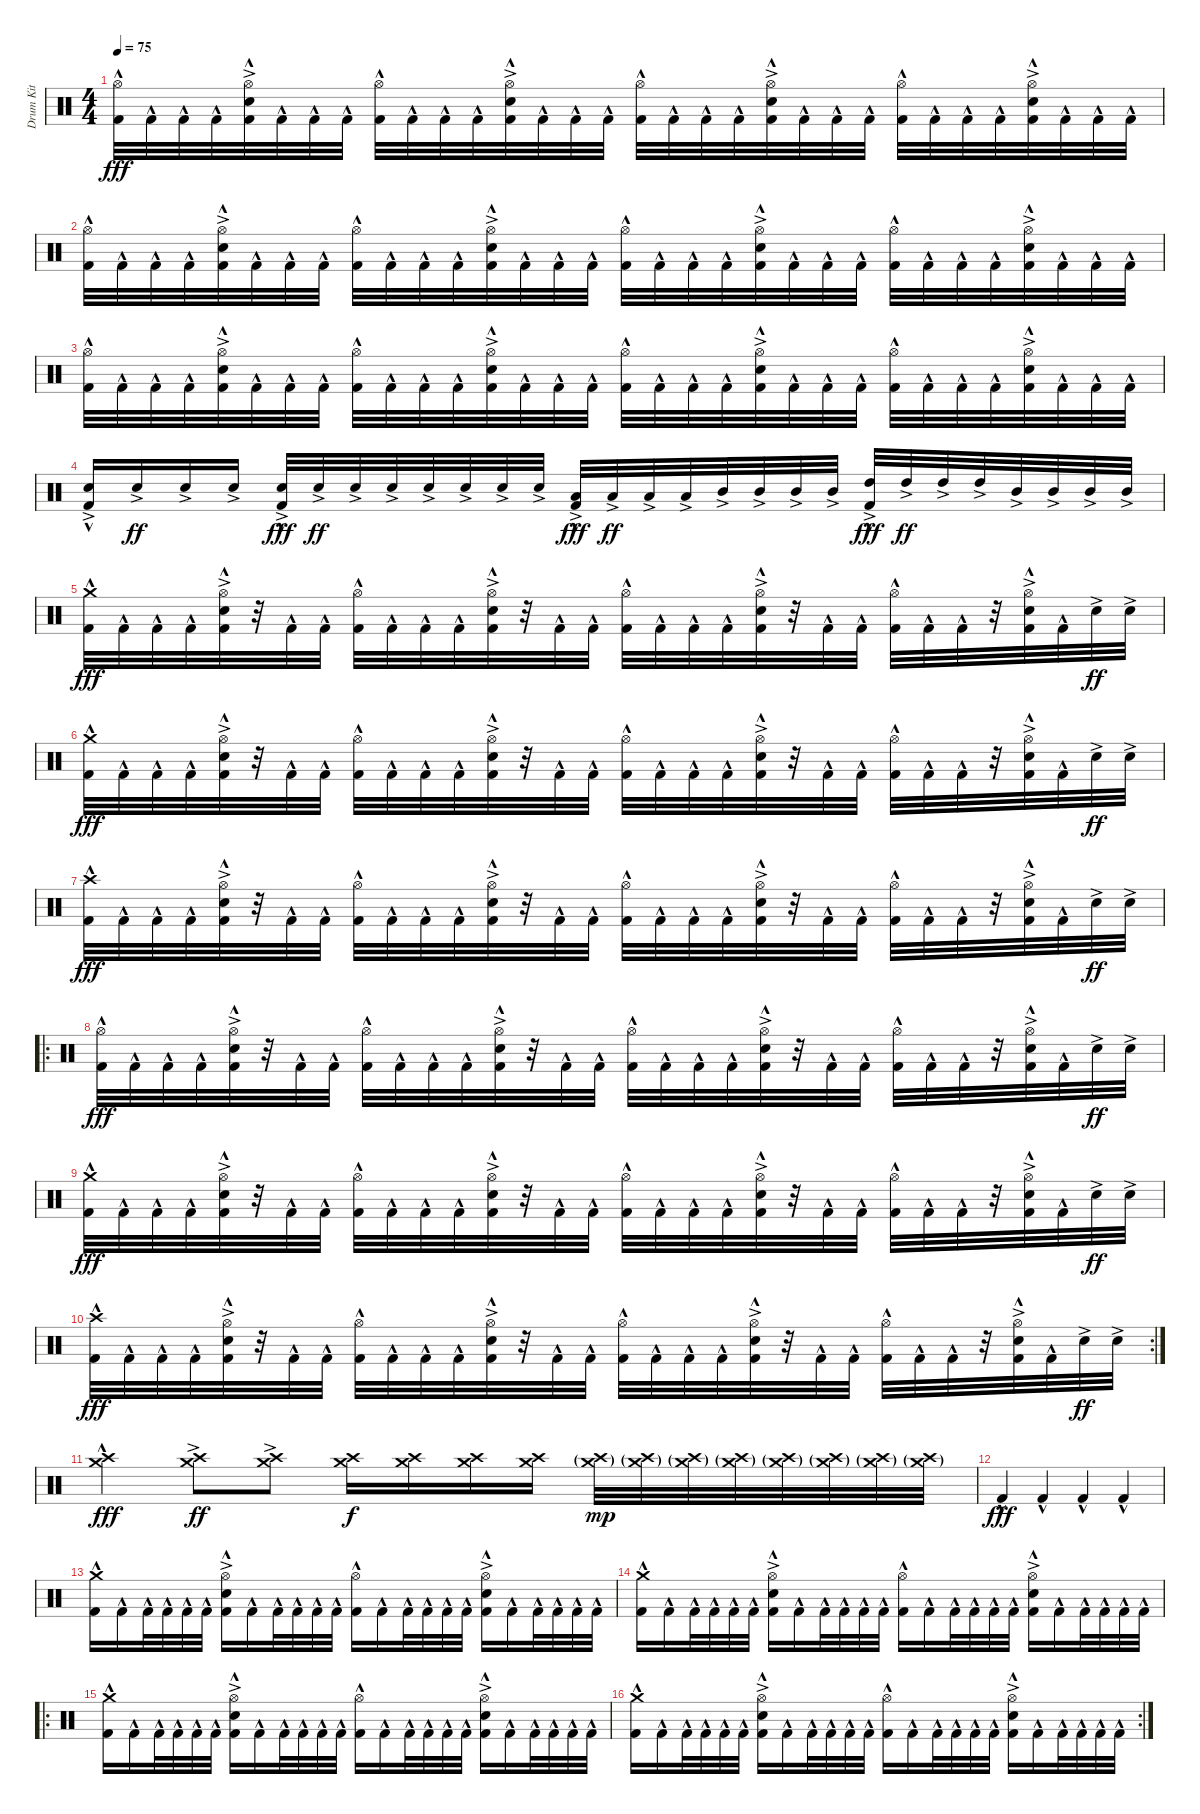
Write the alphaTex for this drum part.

\track ("Drum Kit" "Drum Kit") {instrument percussion}
\staff {score}
\articulation defaults
\ts (4 4)
\tempo 75
\clef neutral
\ks c
("Hi-Hat (open)" "Kick (hit) 2"{hac}).32{dy fff} "Kick (hit) 2"{hac}.32 "Kick (hit) 2"{hac}.32 "Kick (hit) 2"{hac}.32 ("Hi-Hat (open)" "Snare (hit) 2"{ac} "Kick (hit) 2"{hac}).32 "Kick (hit) 2"{hac}.32 "Kick (hit) 2"{hac}.32 "Kick (hit) 2"{hac}.32 ("Hi-Hat (open)" "Kick (hit) 2"{hac}).32 "Kick (hit) 2"{hac}.32 "Kick (hit) 2"{hac}.32 "Kick (hit) 2"{hac}.32 ("Hi-Hat (open)" "Snare (hit) 2"{ac} "Kick (hit) 2"{hac}).32 "Kick (hit) 2"{hac}.32 "Kick (hit) 2"{hac}.32 "Kick (hit) 2"{hac}.32 ("Hi-Hat (open)" "Kick (hit) 2"{hac}).32 "Kick (hit) 2"{hac}.32 "Kick (hit) 2"{hac}.32 "Kick (hit) 2"{hac}.32 ("Hi-Hat (open)" "Snare (hit) 2"{ac} "Kick (hit) 2"{hac}).32 "Kick (hit) 2"{hac}.32 "Kick (hit) 2"{hac}.32 "Kick (hit) 2"{hac}.32 ("Hi-Hat (open)" "Kick (hit) 2"{hac}).32 "Kick (hit) 2"{hac}.32 "Kick (hit) 2"{hac}.32 "Kick (hit) 2"{hac}.32 ("Hi-Hat (open)" "Snare (hit) 2"{ac} "Kick (hit) 2"{hac}).32 "Kick (hit) 2"{hac}.32 "Kick (hit) 2"{hac}.32 "Kick (hit) 2"{hac}.32 |
("Hi-Hat (open)" "Kick (hit) 2"{hac}).32 "Kick (hit) 2"{hac}.32 "Kick (hit) 2"{hac}.32 "Kick (hit) 2"{hac}.32 ("Hi-Hat (open)" "Snare (hit) 2"{ac} "Kick (hit) 2"{hac}).32 "Kick (hit) 2"{hac}.32 "Kick (hit) 2"{hac}.32 "Kick (hit) 2"{hac}.32 ("Hi-Hat (open)" "Kick (hit) 2"{hac}).32 "Kick (hit) 2"{hac}.32 "Kick (hit) 2"{hac}.32 "Kick (hit) 2"{hac}.32 ("Hi-Hat (open)" "Snare (hit) 2"{ac} "Kick (hit) 2"{hac}).32 "Kick (hit) 2"{hac}.32 "Kick (hit) 2"{hac}.32 "Kick (hit) 2"{hac}.32 ("Hi-Hat (open)" "Kick (hit) 2"{hac}).32 "Kick (hit) 2"{hac}.32 "Kick (hit) 2"{hac}.32 "Kick (hit) 2"{hac}.32 ("Hi-Hat (open)" "Snare (hit) 2"{ac} "Kick (hit) 2"{hac}).32 "Kick (hit) 2"{hac}.32 "Kick (hit) 2"{hac}.32 "Kick (hit) 2"{hac}.32 ("Hi-Hat (open)" "Kick (hit) 2"{hac}).32 "Kick (hit) 2"{hac}.32 "Kick (hit) 2"{hac}.32 "Kick (hit) 2"{hac}.32 ("Hi-Hat (open)" "Snare (hit) 2"{ac} "Kick (hit) 2"{hac}).32 "Kick (hit) 2"{hac}.32 "Kick (hit) 2"{hac}.32 "Kick (hit) 2"{hac}.32 |
("Hi-Hat (open)" "Kick (hit) 2"{hac}).32 "Kick (hit) 2"{hac}.32 "Kick (hit) 2"{hac}.32 "Kick (hit) 2"{hac}.32 ("Hi-Hat (open)" "Snare (hit) 2"{ac} "Kick (hit) 2"{hac}).32 "Kick (hit) 2"{hac}.32 "Kick (hit) 2"{hac}.32 "Kick (hit) 2"{hac}.32 ("Hi-Hat (open)" "Kick (hit) 2"{hac}).32 "Kick (hit) 2"{hac}.32 "Kick (hit) 2"{hac}.32 "Kick (hit) 2"{hac}.32 ("Hi-Hat (open)" "Snare (hit) 2"{ac} "Kick (hit) 2"{hac}).32 "Kick (hit) 2"{hac}.32 "Kick (hit) 2"{hac}.32 "Kick (hit) 2"{hac}.32 ("Hi-Hat (open)" "Kick (hit) 2"{hac}).32 "Kick (hit) 2"{hac}.32 "Kick (hit) 2"{hac}.32 "Kick (hit) 2"{hac}.32 ("Hi-Hat (open)" "Snare (hit) 2"{ac} "Kick (hit) 2"{hac}).32 "Kick (hit) 2"{hac}.32 "Kick (hit) 2"{hac}.32 "Kick (hit) 2"{hac}.32 ("Hi-Hat (open)" "Kick (hit) 2"{hac}).32 "Kick (hit) 2"{hac}.32 "Kick (hit) 2"{hac}.32 "Kick (hit) 2"{hac}.32 ("Hi-Hat (open)" "Snare (hit) 2"{ac} "Kick (hit) 2"{hac}).32 "Kick (hit) 2"{hac}.32 "Kick (hit) 2"{hac}.32 "Kick (hit) 2"{hac}.32 |
("Snare (hit) 2"{ac} "Kick (hit) 2"{hac}).16 "Snare (hit) 2"{ac}.16{dy ff} "Snare (hit) 2"{ac}.16 "Snare (hit) 2"{ac}.16 ("Snare (hit) 2"{ac} "Kick (hit) 2"{hac}).32{dy fff} "Snare (hit) 2"{ac}.32{dy ff} "Snare (hit) 2"{ac}.32 "Snare (hit) 2"{ac}.32 "Snare (hit) 2"{ac}.32 "Snare (hit) 2"{ac}.32 "Snare (hit) 2"{ac}.32 "Snare (hit) 2"{ac}.32 ("Low Tom (hit)"{ac} "Kick (hit) 2"{hac}).32{dy fff} "Low Tom (hit)"{ac}.32{dy ff} "Low Tom (hit)"{ac}.32 "Low Tom (hit)"{ac}.32 "Mid Tom (hit)"{ac}.32 "Mid Tom (hit)"{ac}.32 "Mid Tom (hit)"{ac}.32 "Mid Tom (hit)"{ac}.32 ("High Tom (hit)"{ac} "Kick (hit) 2"{hac}).32{dy fff} "High Tom (hit)"{ac}.32{dy ff} "High Tom (hit)"{ac}.32 "High Tom (hit)"{ac}.32 "Mid Tom (hit)"{ac}.32 "Mid Tom (hit)"{ac}.32 "Mid Tom (hit)"{ac}.32 "Mid Tom (hit)"{ac}.32 |
("Crash medium (hit)"{hac} "Kick (hit) 2"{hac}).32{dy fff} "Kick (hit) 2"{hac}.32 "Kick (hit) 2"{hac}.32 "Kick (hit) 2"{hac}.32 ("Hi-Hat (open)" "Snare (hit) 2"{ac} "Kick (hit) 2"{hac}).32 r.32 "Kick (hit) 2"{hac}.32 "Kick (hit) 2"{hac}.32 ("Hi-Hat (open)" "Kick (hit) 2"{hac}).32 "Kick (hit) 2"{hac}.32 "Kick (hit) 2"{hac}.32 "Kick (hit) 2"{hac}.32 ("Hi-Hat (open)" "Snare (hit) 2"{ac} "Kick (hit) 2"{hac}).32 r.32 "Kick (hit) 2"{hac}.32 "Kick (hit) 2"{hac}.32 ("Hi-Hat (open)" "Kick (hit) 2"{hac}).32 "Kick (hit) 2"{hac}.32 "Kick (hit) 2"{hac}.32 "Kick (hit) 2"{hac}.32 ("Hi-Hat (open)" "Snare (hit) 2"{ac} "Kick (hit) 2"{hac}).32 r.32 "Kick (hit) 2"{hac}.32 "Kick (hit) 2"{hac}.32 ("Hi-Hat (open)" "Kick (hit) 2"{hac}).32 "Kick (hit) 2"{hac}.32 "Kick (hit) 2"{hac}.32 r.32 ("Hi-Hat (open)" "Snare (hit) 2"{ac} "Kick (hit) 2"{hac}).32 "Kick (hit) 2"{hac}.32 "Snare (hit) 2"{ac}.32{dy ff} "Snare (hit) 2"{ac}.32 |
("Crash medium (hit)"{hac} "Kick (hit) 2"{hac}).32{dy fff} "Kick (hit) 2"{hac}.32 "Kick (hit) 2"{hac}.32 "Kick (hit) 2"{hac}.32 ("Hi-Hat (open)" "Snare (hit) 2"{ac} "Kick (hit) 2"{hac}).32 r.32 "Kick (hit) 2"{hac}.32 "Kick (hit) 2"{hac}.32 ("Hi-Hat (open)" "Kick (hit) 2"{hac}).32 "Kick (hit) 2"{hac}.32 "Kick (hit) 2"{hac}.32 "Kick (hit) 2"{hac}.32 ("Hi-Hat (open)" "Snare (hit) 2"{ac} "Kick (hit) 2"{hac}).32 r.32 "Kick (hit) 2"{hac}.32 "Kick (hit) 2"{hac}.32 ("Hi-Hat (open)" "Kick (hit) 2"{hac}).32 "Kick (hit) 2"{hac}.32 "Kick (hit) 2"{hac}.32 "Kick (hit) 2"{hac}.32 ("Hi-Hat (open)" "Snare (hit) 2"{ac} "Kick (hit) 2"{hac}).32 r.32 "Kick (hit) 2"{hac}.32 "Kick (hit) 2"{hac}.32 ("Hi-Hat (open)" "Kick (hit) 2"{hac}).32 "Kick (hit) 2"{hac}.32 "Kick (hit) 2"{hac}.32 r.32 ("Hi-Hat (open)" "Snare (hit) 2"{ac} "Kick (hit) 2"{hac}).32 "Kick (hit) 2"{hac}.32 "Snare (hit) 2"{ac}.32{dy ff} "Snare (hit) 2"{ac}.32 |
("Crash high (hit)"{hac} "Kick (hit) 2"{hac}).32{dy fff} "Kick (hit) 2"{hac}.32 "Kick (hit) 2"{hac}.32 "Kick (hit) 2"{hac}.32 ("Hi-Hat (open)" "Snare (hit) 2"{ac} "Kick (hit) 2"{hac}).32 r.32 "Kick (hit) 2"{hac}.32 "Kick (hit) 2"{hac}.32 ("Hi-Hat (open)" "Kick (hit) 2"{hac}).32 "Kick (hit) 2"{hac}.32 "Kick (hit) 2"{hac}.32 "Kick (hit) 2"{hac}.32 ("Hi-Hat (open)" "Snare (hit) 2"{ac} "Kick (hit) 2"{hac}).32 r.32 "Kick (hit) 2"{hac}.32 "Kick (hit) 2"{hac}.32 ("Hi-Hat (open)" "Kick (hit) 2"{hac}).32 "Kick (hit) 2"{hac}.32 "Kick (hit) 2"{hac}.32 "Kick (hit) 2"{hac}.32 ("Hi-Hat (open)" "Snare (hit) 2"{ac} "Kick (hit) 2"{hac}).32 r.32 "Kick (hit) 2"{hac}.32 "Kick (hit) 2"{hac}.32 ("Hi-Hat (open)" "Kick (hit) 2"{hac}).32 "Kick (hit) 2"{hac}.32 "Kick (hit) 2"{hac}.32 r.32 ("Hi-Hat (open)" "Snare (hit) 2"{ac} "Kick (hit) 2"{hac}).32 "Kick (hit) 2"{hac}.32 "Snare (hit) 2"{ac}.32{dy ff} "Snare (hit) 2"{ac}.32 |
\ro
("Hi-Hat (open)" "Kick (hit) 2"{hac}).32{dy fff} "Kick (hit) 2"{hac}.32 "Kick (hit) 2"{hac}.32 "Kick (hit) 2"{hac}.32 ("Hi-Hat (open)" "Snare (hit) 2"{ac} "Kick (hit) 2"{hac}).32 r.32 "Kick (hit) 2"{hac}.32 "Kick (hit) 2"{hac}.32 ("Hi-Hat (open)" "Kick (hit) 2"{hac}).32 "Kick (hit) 2"{hac}.32 "Kick (hit) 2"{hac}.32 "Kick (hit) 2"{hac}.32 ("Hi-Hat (open)" "Snare (hit) 2"{ac} "Kick (hit) 2"{hac}).32 r.32 "Kick (hit) 2"{hac}.32 "Kick (hit) 2"{hac}.32 ("Hi-Hat (open)" "Kick (hit) 2"{hac}).32 "Kick (hit) 2"{hac}.32 "Kick (hit) 2"{hac}.32 "Kick (hit) 2"{hac}.32 ("Hi-Hat (open)" "Snare (hit) 2"{ac} "Kick (hit) 2"{hac}).32 r.32 "Kick (hit) 2"{hac}.32 "Kick (hit) 2"{hac}.32 ("Hi-Hat (open)" "Kick (hit) 2"{hac}).32 "Kick (hit) 2"{hac}.32 "Kick (hit) 2"{hac}.32 r.32 ("Hi-Hat (open)" "Snare (hit) 2"{ac} "Kick (hit) 2"{hac}).32 "Kick (hit) 2"{hac}.32 "Snare (hit) 2"{ac}.32{dy ff} "Snare (hit) 2"{ac}.32 |
("Crash medium (hit)"{hac} "Kick (hit) 2"{hac}).32{dy fff} "Kick (hit) 2"{hac}.32 "Kick (hit) 2"{hac}.32 "Kick (hit) 2"{hac}.32 ("Hi-Hat (open)" "Snare (hit) 2"{ac} "Kick (hit) 2"{hac}).32 r.32 "Kick (hit) 2"{hac}.32 "Kick (hit) 2"{hac}.32 ("Hi-Hat (open)" "Kick (hit) 2"{hac}).32 "Kick (hit) 2"{hac}.32 "Kick (hit) 2"{hac}.32 "Kick (hit) 2"{hac}.32 ("Hi-Hat (open)" "Snare (hit) 2"{ac} "Kick (hit) 2"{hac}).32 r.32 "Kick (hit) 2"{hac}.32 "Kick (hit) 2"{hac}.32 ("Hi-Hat (open)" "Kick (hit) 2"{hac}).32 "Kick (hit) 2"{hac}.32 "Kick (hit) 2"{hac}.32 "Kick (hit) 2"{hac}.32 ("Hi-Hat (open)" "Snare (hit) 2"{ac} "Kick (hit) 2"{hac}).32 r.32 "Kick (hit) 2"{hac}.32 "Kick (hit) 2"{hac}.32 ("Hi-Hat (open)" "Kick (hit) 2"{hac}).32 "Kick (hit) 2"{hac}.32 "Kick (hit) 2"{hac}.32 r.32 ("Hi-Hat (open)" "Snare (hit) 2"{ac} "Kick (hit) 2"{hac}).32 "Kick (hit) 2"{hac}.32 "Snare (hit) 2"{ac}.32{dy ff} "Snare (hit) 2"{ac}.32 |
\rc 2
("Crash high (hit)"{hac} "Kick (hit) 2"{hac}).32{dy fff} "Kick (hit) 2"{hac}.32 "Kick (hit) 2"{hac}.32 "Kick (hit) 2"{hac}.32 ("Hi-Hat (open)" "Snare (hit) 2"{ac} "Kick (hit) 2"{hac}).32 r.32 "Kick (hit) 2"{hac}.32 "Kick (hit) 2"{hac}.32 ("Hi-Hat (open)" "Kick (hit) 2"{hac}).32 "Kick (hit) 2"{hac}.32 "Kick (hit) 2"{hac}.32 "Kick (hit) 2"{hac}.32 ("Hi-Hat (open)" "Snare (hit) 2"{ac} "Kick (hit) 2"{hac}).32 r.32 "Kick (hit) 2"{hac}.32 "Kick (hit) 2"{hac}.32 ("Hi-Hat (open)" "Kick (hit) 2"{hac}).32 "Kick (hit) 2"{hac}.32 "Kick (hit) 2"{hac}.32 "Kick (hit) 2"{hac}.32 ("Hi-Hat (open)" "Snare (hit) 2"{ac} "Kick (hit) 2"{hac}).32 r.32 "Kick (hit) 2"{hac}.32 "Kick (hit) 2"{hac}.32 ("Hi-Hat (open)" "Kick (hit) 2"{hac}).32 "Kick (hit) 2"{hac}.32 "Kick (hit) 2"{hac}.32 r.32 ("Hi-Hat (open)" "Snare (hit) 2"{ac} "Kick (hit) 2"{hac}).32 "Kick (hit) 2"{hac}.32 "Snare (hit) 2"{ac}.32{dy ff} "Snare (hit) 2"{ac}.32 |
("Crash medium (hit)"{hac} "Crash high (hit)"{hac}).4{dy fff} ("Crash medium (hit)"{ac} "Crash high (hit)"{ac}).8{dy ff} ("Crash medium (hit)"{ac} "Crash high (hit)"{ac}).8 ("Crash medium (hit)" "Crash high (hit)").16{dy f} ("Crash medium (hit)" "Crash high (hit)").16 ("Crash medium (hit)" "Crash high (hit)").16 ("Crash medium (hit)" "Crash high (hit)").16 ("Crash medium (hit)"{g} "Crash high (hit)"{g}).32{dy mp} ("Crash medium (hit)"{g} "Crash high (hit)"{g}).32 ("Crash medium (hit)"{g} "Crash high (hit)"{g}).32 ("Crash medium (hit)"{g} "Crash high (hit)"{g}).32 ("Crash medium (hit)"{g} "Crash high (hit)"{g}).32 ("Crash medium (hit)"{g} "Crash high (hit)"{g}).32 ("Crash medium (hit)"{g} "Crash high (hit)"{g}).32 ("Crash medium (hit)"{g} "Crash high (hit)"{g}).32 |
"Kick (hit) 2"{hac}.4{dy fff} "Kick (hit) 2"{hac}.4 "Kick (hit) 2"{hac}.4 "Kick (hit) 2"{hac}.4 |
("Crash medium (hit)"{hac} "Kick (hit) 2"{hac}).16 "Kick (hit) 2"{hac}.16 "Kick (hit) 2"{hac}.32 "Kick (hit) 2"{hac}.32 "Kick (hit) 2"{hac}.32 "Kick (hit) 2"{hac}.32 ("Hi-Hat (open)" "Snare (hit) 2"{ac} "Kick (hit) 2"{hac}).16 "Kick (hit) 2"{hac}.16 "Kick (hit) 2"{hac}.32 "Kick (hit) 2"{hac}.32 "Kick (hit) 2"{hac}.32 "Kick (hit) 2"{hac}.32 ("Hi-Hat (open)" "Kick (hit) 2"{hac}).16 "Kick (hit) 2"{hac}.16 "Kick (hit) 2"{hac}.32 "Kick (hit) 2"{hac}.32 "Kick (hit) 2"{hac}.32 "Kick (hit) 2"{hac}.32 ("Hi-Hat (open)" "Snare (hit) 2"{ac} "Kick (hit) 2"{hac}).16 "Kick (hit) 2"{hac}.16 "Kick (hit) 2"{hac}.32 "Kick (hit) 2"{hac}.32 "Kick (hit) 2"{hac}.32 "Kick (hit) 2"{hac}.32 |
("Crash medium (hit)"{hac} "Kick (hit) 2"{hac}).16 "Kick (hit) 2"{hac}.16 "Kick (hit) 2"{hac}.32 "Kick (hit) 2"{hac}.32 "Kick (hit) 2"{hac}.32 "Kick (hit) 2"{hac}.32 ("Hi-Hat (open)" "Snare (hit) 2"{ac} "Kick (hit) 2"{hac}).16 "Kick (hit) 2"{hac}.16 "Kick (hit) 2"{hac}.32 "Kick (hit) 2"{hac}.32 "Kick (hit) 2"{hac}.32 "Kick (hit) 2"{hac}.32 ("Hi-Hat (open)" "Kick (hit) 2"{hac}).16 "Kick (hit) 2"{hac}.16 "Kick (hit) 2"{hac}.32 "Kick (hit) 2"{hac}.32 "Kick (hit) 2"{hac}.32 "Kick (hit) 2"{hac}.32 ("Hi-Hat (open)" "Snare (hit) 2"{ac} "Kick (hit) 2"{hac}).16 "Kick (hit) 2"{hac}.16 "Kick (hit) 2"{hac}.32 "Kick (hit) 2"{hac}.32 "Kick (hit) 2"{hac}.32 "Kick (hit) 2"{hac}.32 |
\ro
("Crash medium (hit)"{hac} "Kick (hit) 2"{hac}).16 "Kick (hit) 2"{hac}.16 "Kick (hit) 2"{hac}.32 "Kick (hit) 2"{hac}.32 "Kick (hit) 2"{hac}.32 "Kick (hit) 2"{hac}.32 ("Hi-Hat (open)" "Snare (hit) 2"{ac} "Kick (hit) 2"{hac}).16 "Kick (hit) 2"{hac}.16 "Kick (hit) 2"{hac}.32 "Kick (hit) 2"{hac}.32 "Kick (hit) 2"{hac}.32 "Kick (hit) 2"{hac}.32 ("Hi-Hat (open)" "Kick (hit) 2"{hac}).16 "Kick (hit) 2"{hac}.16 "Kick (hit) 2"{hac}.32 "Kick (hit) 2"{hac}.32 "Kick (hit) 2"{hac}.32 "Kick (hit) 2"{hac}.32 ("Hi-Hat (open)" "Snare (hit) 2"{ac} "Kick (hit) 2"{hac}).16 "Kick (hit) 2"{hac}.16 "Kick (hit) 2"{hac}.32 "Kick (hit) 2"{hac}.32 "Kick (hit) 2"{hac}.32 "Kick (hit) 2"{hac}.32 |
\rc 2
("Crash medium (hit)"{hac} "Kick (hit) 2"{hac}).16 "Kick (hit) 2"{hac}.16 "Kick (hit) 2"{hac}.32 "Kick (hit) 2"{hac}.32 "Kick (hit) 2"{hac}.32 "Kick (hit) 2"{hac}.32 ("Hi-Hat (open)" "Snare (hit) 2"{ac} "Kick (hit) 2"{hac}).16 "Kick (hit) 2"{hac}.16 "Kick (hit) 2"{hac}.32 "Kick (hit) 2"{hac}.32 "Kick (hit) 2"{hac}.32 "Kick (hit) 2"{hac}.32 ("Hi-Hat (open)" "Kick (hit) 2"{hac}).16 "Kick (hit) 2"{hac}.16 "Kick (hit) 2"{hac}.32 "Kick (hit) 2"{hac}.32 "Kick (hit) 2"{hac}.32 "Kick (hit) 2"{hac}.32 ("Hi-Hat (open)" "Snare (hit) 2"{ac} "Kick (hit) 2"{hac}).16 "Kick (hit) 2"{hac}.16 "Kick (hit) 2"{hac}.32 "Kick (hit) 2"{hac}.32 "Kick (hit) 2"{hac}.32 "Kick (hit) 2"{hac}.32
